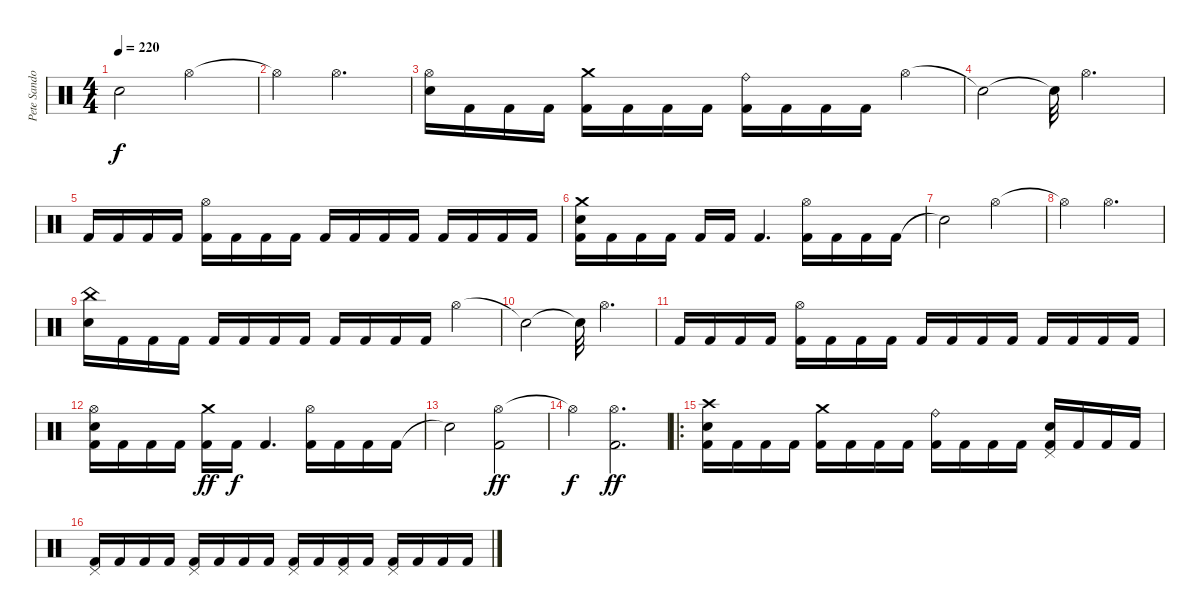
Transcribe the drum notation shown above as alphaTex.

\track ("Pete Sandoval" "Pete Sando") {instrument percussion}
\staff {score}
\articulation defaults
\ts (4 4)
\tempo 220
\clef neutral
\ks c "Snare (hit)"{t}.2{dy f} "Hi-Hat (open)".2
|
"Hi-Hat (open)"{t}.4 "Hi-Hat (open)".2{d} |
("Hi-Hat (open)" "Electric Snare (hit)").16 "Kick (hit) 2".16 "Kick (hit) 2".16 "Kick (hit) 2".16 ("Crash medium (hit)" "Kick (hit) 2").16 "Kick (hit) 2".16 "Kick (hit) 2".16 "Kick (hit) 2".16 ("Ride (bell)" "Kick (hit) 2").16 "Kick (hit) 2".16 "Kick (hit) 2".16 "Kick (hit) 2".16 "Hi-Hat (open)".4 |
"Snare (hit)"{t}.2 "Snare (hit)"{t}.32 "Hi-Hat (open)".2{d} |
"Kick (hit) 2".16 "Kick (hit) 2".16 "Kick (hit) 2".16 "Kick (hit) 2".16 ("Hi-Hat (open)" "Kick (hit) 2").16 "Kick (hit) 2".16 "Kick (hit) 2".16 "Kick (hit) 2".16 "Kick (hit) 2".16 "Kick (hit) 2".16 "Kick (hit) 2".16 "Kick (hit) 2".16 "Kick (hit) 2".16 "Kick (hit) 2".16 "Kick (hit) 2".16 "Kick (hit) 2".16 |
("Crash medium (hit)" "Electric Snare (hit)" "Kick (hit) 2").16 "Kick (hit) 2".16 "Kick (hit) 2".16 "Kick (hit) 2".16 "Kick (hit) 2".16 "Kick (hit) 2".16 "Kick (hit) 2".4{d} ("Hi-Hat (open)" "Kick (hit) 2").16 "Kick (hit) 2".16 "Kick (hit) 2".16 "Kick (hit) 2".16 |
"Snare (hit)"{t}.2 "Hi-Hat (open)".2 |
"Hi-Hat (open)"{t}.4 "Hi-Hat (open)".2{d} |
("China (hit)" "Electric Snare (hit)").16 "Kick (hit) 2".16 "Kick (hit) 2".16 "Kick (hit) 2".16 "Kick (hit) 2".16 "Kick (hit) 2".16 "Kick (hit) 2".16 "Kick (hit) 2".16 "Kick (hit) 2".16 "Kick (hit) 2".16 "Kick (hit) 2".16 "Kick (hit) 2".16 "Hi-Hat (open)".4 |
"Snare (hit)"{t}.2 "Snare (hit)"{t}.32 "Hi-Hat (open)".4{d} |
"Kick (hit) 2".16 "Kick (hit) 2".16 "Kick (hit) 2".16 "Kick (hit) 2".16 ("Hi-Hat (open)" "Kick (hit) 2").16 "Kick (hit) 2".16 "Kick (hit) 2".16 "Kick (hit) 2".16 "Kick (hit) 2".16 "Kick (hit) 2".16 "Kick (hit) 2".16 "Kick (hit) 2".16 "Kick (hit) 2".16 "Kick (hit) 2".16 "Kick (hit) 2".16 "Kick (hit) 2".16 |
("Hi-Hat (open)" "Electric Snare (hit)" "Kick (hit) 2").16 "Kick (hit) 2".16 "Kick (hit) 2".16 "Kick (hit) 2".16 ("Crash medium (hit)" "Kick (hit) 2").16{dy ff} "Kick (hit) 2".16{dy f} "Kick (hit) 2".4{d} ("Hi-Hat (open)" "Kick (hit) 2").16 "Kick (hit) 2".16 "Kick (hit) 2".16 "Kick (hit) 2".16 |
"Snare (hit)"{t}.2 ("Hi-Hat (open)" "Kick (hit) 2").2{dy ff} |
"Hi-Hat (open)"{t}.4{dy f} ("Hi-Hat (open)" "Kick (hit) 2").2{d dy ff} |
\ro
("Crash high (hit)" "Electric Snare (hit)" "Kick (hit) 2").16 "Kick (hit) 2".16 "Kick (hit) 2".16 "Kick (hit) 2".16 ("Crash medium (hit)" "Kick (hit) 2").16 "Kick (hit) 2".16 "Kick (hit) 2".16 "Kick (hit) 2".16 ("Ride (bell)" "Kick (hit) 2").16 "Kick (hit) 2".16 "Kick (hit) 2".16 "Kick (hit) 2".16 ("Pedal Hi-Hat (hit)" "Electric Snare (hit)" "Kick (hit) 2").16 "Kick (hit) 2".16 "Kick (hit) 2".16 "Kick (hit) 2".16 |
("Pedal Hi-Hat (hit)" "Kick (hit) 2").16 "Kick (hit) 2".16 "Kick (hit) 2".16 "Kick (hit) 2".16 ("Pedal Hi-Hat (hit)" "Kick (hit) 2").16 "Kick (hit) 2".16 "Kick (hit) 2".16 "Kick (hit) 2".16 ("Pedal Hi-Hat (hit)" "Kick (hit) 2").16 "Kick (hit) 2".16 ("Pedal Hi-Hat (hit)" "Kick (hit) 2").16 "Kick (hit) 2".16 ("Pedal Hi-Hat (hit)" "Kick (hit) 2").16 "Kick (hit) 2".16 "Kick (hit) 2".16 "Kick (hit) 2".16
